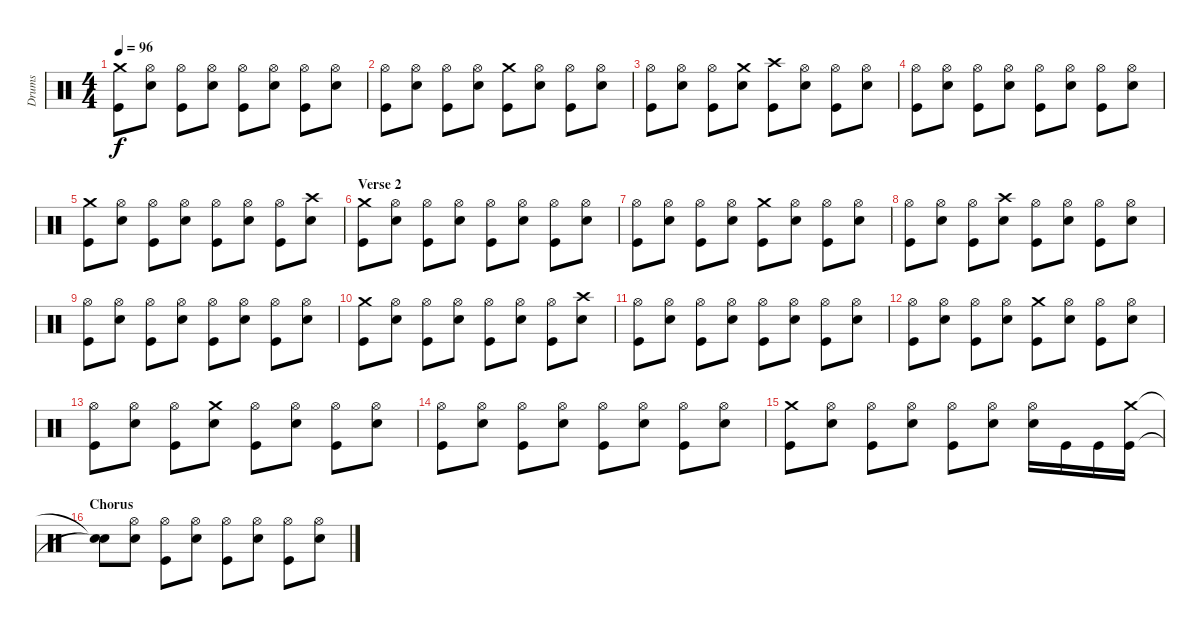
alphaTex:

\track ("Drums" "Drums") {instrument percussion}
\staff {score}
\articulation defaults
\ts (4 4)
\tempo 96
\clef neutral
\ks c
("Crash medium (hit)" "Kick (hit)").8{dy f} ("Hi-Hat (open)" "Snare (hit) 2").8 ("Hi-Hat (open)" "Kick (hit)").8 ("Hi-Hat (open)" "Snare (hit) 2").8 ("Hi-Hat (open)" "Kick (hit)").8 ("Hi-Hat (open)" "Snare (hit) 2").8 ("Hi-Hat (open)" "Kick (hit)").8 ("Hi-Hat (open)" "Snare (hit) 2").8 |
("Hi-Hat (open)" "Kick (hit)").8 ("Hi-Hat (open)" "Snare (hit) 2").8 ("Hi-Hat (open)" "Kick (hit)").8 ("Hi-Hat (open)" "Snare (hit) 2").8 ("Crash medium (hit)" "Kick (hit)").8 ("Hi-Hat (open)" "Snare (hit) 2").8 ("Hi-Hat (open)" "Kick (hit)").8 ("Hi-Hat (open)" "Snare (hit) 2").8 |
("Hi-Hat (open)" "Kick (hit)").8 ("Hi-Hat (open)" "Snare (hit) 2").8 ("Hi-Hat (open)" "Kick (hit)").8 ("Crash medium (hit)" "Snare (hit) 2").8 ("Crash high (hit)" "Kick (hit)").8 ("Hi-Hat (open)" "Snare (hit) 2").8 ("Hi-Hat (open)" "Kick (hit)").8 ("Hi-Hat (open)" "Snare (hit) 2").8 |
("Hi-Hat (open)" "Kick (hit)").8 ("Hi-Hat (open)" "Snare (hit) 2").8 ("Hi-Hat (open)" "Kick (hit)").8 ("Hi-Hat (open)" "Snare (hit) 2").8 ("Hi-Hat (open)" "Kick (hit)").8 ("Hi-Hat (open)" "Snare (hit) 2").8 ("Hi-Hat (open)" "Kick (hit)").8 ("Hi-Hat (open)" "Snare (hit) 2").8 |
("Crash medium (hit)" "Kick (hit)").8 ("Hi-Hat (open)" "Snare (hit) 2").8 ("Hi-Hat (open)" "Kick (hit)").8 ("Hi-Hat (open)" "Snare (hit) 2").8 ("Hi-Hat (open)" "Kick (hit)").8 ("Hi-Hat (open)" "Snare (hit) 2").8 ("Hi-Hat (open)" "Kick (hit)").8 ("Crash high (hit)" "Snare (hit) 2").8 |
\section ("" "Verse 2")
("Crash medium (hit)" "Kick (hit)").8 ("Hi-Hat (open)" "Snare (hit) 2").8 ("Hi-Hat (open)" "Kick (hit)").8 ("Hi-Hat (open)" "Snare (hit) 2").8 ("Hi-Hat (open)" "Kick (hit)").8 ("Hi-Hat (open)" "Snare (hit) 2").8 ("Hi-Hat (open)" "Kick (hit)").8 ("Hi-Hat (open)" "Snare (hit) 2").8 |
("Hi-Hat (open)" "Kick (hit)").8 ("Hi-Hat (open)" "Snare (hit) 2").8 ("Hi-Hat (open)" "Kick (hit)").8 ("Hi-Hat (open)" "Snare (hit) 2").8 ("Crash medium (hit)" "Kick (hit)").8 ("Hi-Hat (open)" "Snare (hit) 2").8 ("Hi-Hat (open)" "Kick (hit)").8 ("Hi-Hat (open)" "Snare (hit) 2").8 |
("Hi-Hat (open)" "Kick (hit)").8 ("Hi-Hat (open)" "Snare (hit) 2").8 ("Hi-Hat (open)" "Kick (hit)").8 ("Crash high (hit)" "Snare (hit) 2").8 ("Hi-Hat (open)" "Kick (hit)").8 ("Hi-Hat (open)" "Snare (hit) 2").8 ("Hi-Hat (open)" "Kick (hit)").8 ("Hi-Hat (open)" "Snare (hit) 2").8 |
("Hi-Hat (open)" "Kick (hit)").8 ("Hi-Hat (open)" "Snare (hit) 2").8 ("Hi-Hat (open)" "Kick (hit)").8 ("Hi-Hat (open)" "Snare (hit) 2").8 ("Hi-Hat (open)" "Kick (hit)").8 ("Hi-Hat (open)" "Snare (hit) 2").8 ("Hi-Hat (open)" "Kick (hit)").8 ("Hi-Hat (open)" "Snare (hit) 2").8 |
("Crash medium (hit)" "Kick (hit)").8 ("Hi-Hat (open)" "Snare (hit) 2").8 ("Hi-Hat (open)" "Kick (hit)").8 ("Hi-Hat (open)" "Snare (hit) 2").8 ("Hi-Hat (open)" "Kick (hit)").8 ("Hi-Hat (open)" "Snare (hit) 2").8 ("Hi-Hat (open)" "Kick (hit)").8 ("Crash high (hit)" "Snare (hit) 2").8 |
("Hi-Hat (open)" "Kick (hit)").8 ("Hi-Hat (open)" "Snare (hit) 2").8 ("Hi-Hat (open)" "Kick (hit)").8 ("Hi-Hat (open)" "Snare (hit) 2").8 ("Hi-Hat (open)" "Kick (hit)").8 ("Hi-Hat (open)" "Snare (hit) 2").8 ("Hi-Hat (open)" "Kick (hit)").8 ("Hi-Hat (open)" "Snare (hit) 2").8 |
("Hi-Hat (open)" "Kick (hit)").8 ("Hi-Hat (open)" "Snare (hit) 2").8 ("Hi-Hat (open)" "Kick (hit)").8 ("Hi-Hat (open)" "Snare (hit) 2").8 ("Crash medium (hit)" "Kick (hit)").8 ("Hi-Hat (open)" "Snare (hit) 2").8 ("Hi-Hat (open)" "Kick (hit)").8 ("Hi-Hat (open)" "Snare (hit) 2").8 |
("Hi-Hat (open)" "Kick (hit)").8 ("Hi-Hat (open)" "Snare (hit) 2").8 ("Hi-Hat (open)" "Kick (hit)").8 ("Crash medium (hit)" "Snare (hit) 2").8 ("Hi-Hat (open)" "Kick (hit)").8 ("Hi-Hat (open)" "Snare (hit) 2").8 ("Hi-Hat (open)" "Kick (hit)").8 ("Hi-Hat (open)" "Snare (hit) 2").8 |
("Hi-Hat (open)" "Kick (hit)").8 ("Hi-Hat (open)" "Snare (hit) 2").8 ("Hi-Hat (open)" "Kick (hit)").8 ("Hi-Hat (open)" "Snare (hit) 2").8 ("Hi-Hat (open)" "Kick (hit)").8 ("Hi-Hat (open)" "Snare (hit) 2").8 ("Hi-Hat (open)" "Kick (hit)").8 ("Hi-Hat (open)" "Snare (hit) 2").8 |
("Crash medium (hit)" "Kick (hit)").8 ("Hi-Hat (open)" "Snare (hit) 2").8 ("Hi-Hat (open)" "Kick (hit)").8 ("Hi-Hat (open)" "Snare (hit) 2").8 ("Hi-Hat (open)" "Kick (hit)").8 ("Hi-Hat (open)" "Snare (hit) 2").8 ("Hi-Hat (open)" "Snare (hit) 2").16 "Kick (hit)".16 "Kick (hit)".16 ("Crash medium (hit)" "Kick (hit)").16 |
\section ("" "Chorus")
("Snare (hit)"{t} "Snare (hit)"{t}).8 ("Hi-Hat (open)" "Snare (hit) 2").8 ("Hi-Hat (open)" "Kick (hit)").8 ("Hi-Hat (open)" "Snare (hit) 2").8 ("Hi-Hat (open)" "Kick (hit)").8 ("Hi-Hat (open)" "Snare (hit) 2").8 ("Hi-Hat (open)" "Kick (hit)").8 ("Hi-Hat (open)" "Snare (hit) 2").8
